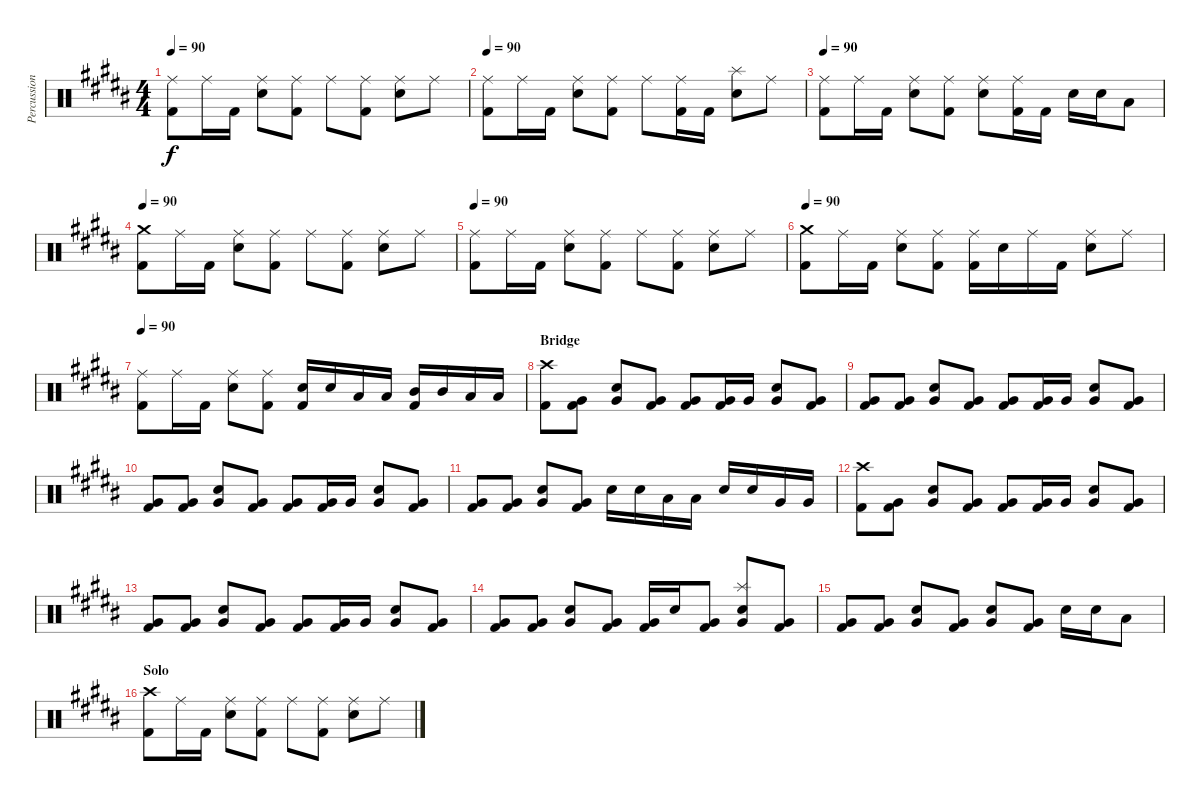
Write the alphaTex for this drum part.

\track ("Percussion" "Percussion") {instrument percussion}
\staff {score}
\articulation defaults
\ts (4 4)
\tempo 90
\clef neutral
\ks b
("Ride (middle)" "Kick (hit) 2").8{dy f} "Ride (middle)".16 "Kick (hit) 2".16 ("Ride (middle)" "Electric Snare (hit)").8 ("Ride (middle)" "Kick (hit) 2").8 "Ride (middle)".8 ("Ride (middle)" "Kick (hit) 2").8 ("Ride (middle)" "Electric Snare (hit)").8 "Ride (middle)".8 |
\tempo 90
("Ride (middle)" "Kick (hit) 2").8 "Ride (middle)".16 "Kick (hit) 2".16 ("Ride (middle)" "Electric Snare (hit)").8 ("Ride (middle)" "Kick (hit) 2").8 "Ride (middle)".8 ("Ride (middle)" "Kick (hit) 2").16 "Kick (hit) 2".16 ("Splash (hit)" "Electric Snare (hit)").8 "Ride (middle)".8 |
\tempo 90
("Ride (middle)" "Kick (hit) 2").8 "Ride (middle)".16 "Kick (hit) 2".16 ("Ride (middle)" "Electric Snare (hit)").8 ("Ride (middle)" "Kick (hit) 2").8 ("Ride (middle)" "Electric Snare (hit)").8 ("Ride (middle)" "Kick (hit) 2").16 "Kick (hit) 2".16 "Electric Snare (hit)".16 "Electric Snare (hit)".16 "Low Tom (hit)".8 |
\tempo 90
("Crash medium (hit)" "Kick (hit) 2").8 "Ride (middle)".16 "Kick (hit) 2".16 ("Ride (middle)" "Electric Snare (hit)").8 ("Ride (middle)" "Kick (hit) 2").8 "Ride (middle)".8 ("Ride (middle)" "Kick (hit) 2").8 ("Ride (middle)" "Electric Snare (hit)").8 "Ride (middle)".8 |
\tempo 90
("Ride (middle)" "Kick (hit) 2").8 "Ride (middle)".16 "Kick (hit) 2".16 ("Ride (middle)" "Electric Snare (hit)").8 ("Ride (middle)" "Kick (hit) 2").8 "Ride (middle)".8 ("Ride (middle)" "Kick (hit) 2").8 ("Ride (middle)" "Electric Snare (hit)").8 "Ride (middle)".8 |
\tempo 90
("Crash medium (hit)" "Kick (hit) 2").8 "Ride (middle)".16 "Kick (hit) 2".16 ("Ride (middle)" "Electric Snare (hit)").8 ("Ride (middle)" "Kick (hit) 2").8 ("Ride (middle)" "Kick (hit) 2").16 "Electric Snare (hit)".16 "Ride (middle)".16 "Kick (hit) 2".16 ("Ride (middle)" "Electric Snare (hit)").8 "Ride (middle)".8 |
\tempo 90
("Ride (middle)" "Kick (hit) 2").8 "Ride (middle)".16 "Kick (hit) 2".16 ("Ride (middle)" "Electric Snare (hit)").8 ("Ride (middle)" "Kick (hit) 2").8 ("Electric Snare (hit)" "Kick (hit) 2").16 "Electric Snare (hit)".16 "Low Tom (hit)".16 "Low Tom (hit)".16 ("Mid Tom (hit)" "Kick (hit) 2").16 "Mid Tom (hit)".16 "Low Tom (hit)".16 "Low Tom (hit)".16 |
\section ("" "Bridge")
("Crash high (hit)" "Kick (hit) 2").8 ("Very Low Tom (hit)" "Kick (hit) 2").8 ("Very Low Tom (hit)" "Electric Snare (hit)").8 ("Very Low Tom (hit)" "Kick (hit) 2").8 ("Very Low Tom (hit)" "Kick (hit) 2").8 ("Very Low Tom (hit)" "Kick (hit) 2").16 "Very Low Tom (hit)".16 ("Very Low Tom (hit)" "Electric Snare (hit)").8 ("Very Low Tom (hit)" "Kick (hit) 2").8 |
("Very Low Tom (hit)" "Kick (hit) 2").8 ("Very Low Tom (hit)" "Kick (hit) 2").8 ("Very Low Tom (hit)" "Electric Snare (hit)").8 ("Very Low Tom (hit)" "Kick (hit) 2").8 ("Very Low Tom (hit)" "Kick (hit) 2").8 ("Very Low Tom (hit)" "Kick (hit) 2").16 "Very Low Tom (hit)".16 ("Very Low Tom (hit)" "Electric Snare (hit)").8 ("Very Low Tom (hit)" "Kick (hit) 2").8 |
("Very Low Tom (hit)" "Kick (hit) 2").8 ("Very Low Tom (hit)" "Kick (hit) 2").8 ("Very Low Tom (hit)" "Electric Snare (hit)").8 ("Very Low Tom (hit)" "Kick (hit) 2").8 ("Very Low Tom (hit)" "Kick (hit) 2").8 ("Very Low Tom (hit)" "Kick (hit) 2").16 "Very Low Tom (hit)".16 ("Very Low Tom (hit)" "Electric Snare (hit)").8 ("Very Low Tom (hit)" "Kick (hit) 2").8 |
("Very Low Tom (hit)" "Kick (hit) 2").8 ("Very Low Tom (hit)" "Kick (hit) 2").8 ("Very Low Tom (hit)" "Electric Snare (hit)").8 ("Very Low Tom (hit)" "Kick (hit) 2").8 "Electric Snare (hit)".16 "Electric Snare (hit)".16 "Low Tom (hit)".16 "Low Tom (hit)".16 "Electric Snare (hit)".16 "Electric Snare (hit)".16 "Very Low Tom (hit)".16 "Very Low Tom (hit)".16 |
("Crash high (hit)" "Kick (hit) 2").8 ("Very Low Tom (hit)" "Kick (hit) 2").8 ("Very Low Tom (hit)" "Electric Snare (hit)").8 ("Very Low Tom (hit)" "Kick (hit) 2").8 ("Very Low Tom (hit)" "Kick (hit) 2").8 ("Very Low Tom (hit)" "Kick (hit) 2").16 "Very Low Tom (hit)".16 ("Very Low Tom (hit)" "Electric Snare (hit)").8 ("Very Low Tom (hit)" "Kick (hit) 2").8 |
("Very Low Tom (hit)" "Kick (hit) 2").8 ("Very Low Tom (hit)" "Kick (hit) 2").8 ("Very Low Tom (hit)" "Electric Snare (hit)").8 ("Very Low Tom (hit)" "Kick (hit) 2").8 ("Very Low Tom (hit)" "Kick (hit) 2").8 ("Very Low Tom (hit)" "Kick (hit) 2").16 "Very Low Tom (hit)".16 ("Very Low Tom (hit)" "Electric Snare (hit)").8 ("Very Low Tom (hit)" "Kick (hit) 2").8 |
("Very Low Tom (hit)" "Kick (hit) 2").8 ("Very Low Tom (hit)" "Kick (hit) 2").8 ("Very Low Tom (hit)" "Electric Snare (hit)").8 ("Very Low Tom (hit)" "Kick (hit) 2").8 ("Very Low Tom (hit)" "Kick (hit) 2").16 "Electric Snare (hit)".16 ("Very Low Tom (hit)" "Kick (hit) 2").8 ("Splash (hit)" "Very Low Tom (hit)" "Electric Snare (hit)").8 ("Very Low Tom (hit)" "Kick (hit) 2").8 |
("Very Low Tom (hit)" "Kick (hit) 2").8 ("Very Low Tom (hit)" "Kick (hit) 2").8 ("Very Low Tom (hit)" "Electric Snare (hit)").8 ("Very Low Tom (hit)" "Kick (hit) 2").8 ("Very Low Tom (hit)" "Electric Snare (hit)").8 ("Very Low Tom (hit)" "Kick (hit) 2").8 "Electric Snare (hit)".16 "Electric Snare (hit)".16 "Low Tom (hit)".8 |
\section ("" "Solo")
("Crash high (hit)" "Kick (hit) 2").8 "Ride (middle)".16 "Kick (hit) 2".16 ("Ride (middle)" "Electric Snare (hit)").8 ("Ride (middle)" "Kick (hit) 2").8 "Ride (middle)".8 ("Ride (middle)" "Kick (hit) 2").8 ("Ride (middle)" "Electric Snare (hit)").8 "Ride (middle)".8
